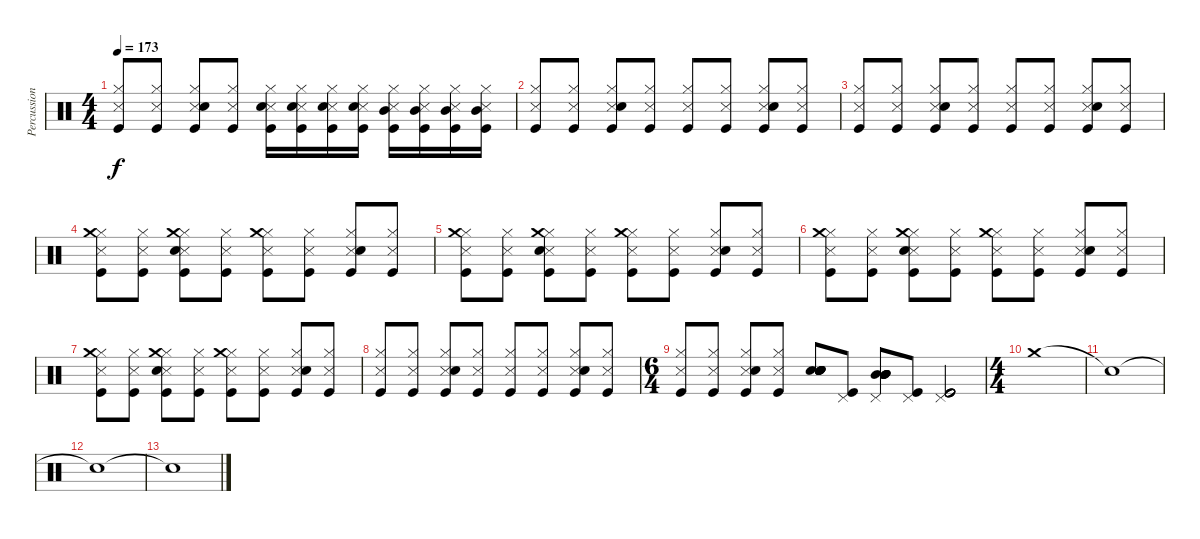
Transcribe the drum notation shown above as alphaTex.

\track ("Percussion" "Percussion") {instrument percussion}
\staff {score}
\articulation defaults
\ts (4 4)
\tempo 173
\clef neutral
\ks c
("Snare (side stick) 3" "Hi-Hat (closed)" "Kick (hit)").8{dy f} ("Snare (side stick) 3" "Hi-Hat (closed)" "Kick (hit)").8 ("Snare (side stick) 3" "Hi-Hat (closed)" "Snare (hit) 2" "Kick (hit)").8 ("Snare (side stick) 3" "Hi-Hat (closed)" "Kick (hit)").8 ("Snare (side stick) 3" "Hi-Hat (closed)" "Snare (hit) 2" "Kick (hit)").16 ("Snare (side stick) 3" "Hi-Hat (closed)" "Snare (hit) 2" "Kick (hit)").16 ("Snare (side stick) 3" "Hi-Hat (closed)" "Snare (hit) 2" "Kick (hit)").16 ("Snare (side stick) 3" "Hi-Hat (closed)" "Snare (hit) 2" "Kick (hit)").16 ("Snare (side stick) 3" "Hi-Hat (closed)" "Mid Tom (hit)" "Kick (hit)").16 ("Snare (side stick) 3" "Hi-Hat (closed)" "Mid Tom (hit)" "Kick (hit)").16 ("Snare (side stick) 3" "Hi-Hat (closed)" "Mid Tom (hit)" "Kick (hit)").16 ("Snare (side stick) 3" "Hi-Hat (closed)" "Mid Tom (hit)" "Kick (hit)").16 |
("Snare (side stick) 3" "Hi-Hat (closed)" "Kick (hit)").8 ("Snare (side stick) 3" "Hi-Hat (closed)" "Kick (hit)").8 ("Snare (side stick) 3" "Hi-Hat (closed)" "Snare (hit) 2" "Kick (hit)").8 ("Snare (side stick) 3" "Hi-Hat (closed)" "Kick (hit)").8 ("Snare (side stick) 3" "Hi-Hat (closed)" "Kick (hit)").8 ("Snare (side stick) 3" "Hi-Hat (closed)" "Kick (hit)").8 ("Snare (side stick) 3" "Hi-Hat (closed)" "Snare (hit) 2" "Kick (hit)").8 ("Snare (side stick) 3" "Hi-Hat (closed)" "Kick (hit)").8 |
("Snare (side stick) 3" "Hi-Hat (closed)" "Kick (hit)").8 ("Snare (side stick) 3" "Hi-Hat (closed)" "Kick (hit)").8 ("Snare (side stick) 3" "Hi-Hat (closed)" "Snare (hit) 2" "Kick (hit)").8 ("Snare (side stick) 3" "Hi-Hat (closed)" "Kick (hit)").8 ("Snare (side stick) 3" "Hi-Hat (closed)" "Kick (hit)").8 ("Snare (side stick) 3" "Hi-Hat (closed)" "Kick (hit)").8 ("Snare (side stick) 3" "Hi-Hat (closed)" "Snare (hit) 2" "Kick (hit)").8 ("Snare (side stick) 3" "Hi-Hat (closed)" "Kick (hit)").8 |
("Snare (side stick) 3" "Hi-Hat (closed)" "Crash medium (hit)" "Kick (hit)").8 ("Snare (side stick) 3" "Hi-Hat (closed)" "Kick (hit)").8 ("Snare (side stick) 3" "Hi-Hat (closed)" "Crash medium (hit)" "Snare (hit) 2" "Kick (hit)").8 ("Snare (side stick) 3" "Hi-Hat (closed)" "Kick (hit)").8 ("Snare (side stick) 3" "Hi-Hat (closed)" "Crash medium (hit)" "Kick (hit)").8 ("Snare (side stick) 3" "Hi-Hat (closed)" "Kick (hit)").8 ("Snare (side stick) 3" "Hi-Hat (closed)" "Snare (hit) 2" "Kick (hit)").8 ("Snare (side stick) 3" "Hi-Hat (closed)" "Kick (hit)").8 |
("Snare (side stick) 3" "Hi-Hat (closed)" "Crash medium (hit)" "Kick (hit)").8 ("Snare (side stick) 3" "Hi-Hat (closed)" "Kick (hit)").8 ("Snare (side stick) 3" "Hi-Hat (closed)" "Crash medium (hit)" "Snare (hit) 2" "Kick (hit)").8 ("Snare (side stick) 3" "Hi-Hat (closed)" "Kick (hit)").8 ("Snare (side stick) 3" "Hi-Hat (closed)" "Crash medium (hit)" "Kick (hit)").8 ("Snare (side stick) 3" "Hi-Hat (closed)" "Kick (hit)").8 ("Snare (side stick) 3" "Hi-Hat (closed)" "Snare (hit) 2" "Kick (hit)").8 ("Snare (side stick) 3" "Hi-Hat (closed)" "Kick (hit)").8 |
("Snare (side stick) 3" "Hi-Hat (closed)" "Crash medium (hit)" "Kick (hit)").8 ("Snare (side stick) 3" "Hi-Hat (closed)" "Kick (hit)").8 ("Snare (side stick) 3" "Hi-Hat (closed)" "Crash medium (hit)" "Snare (hit) 2" "Kick (hit)").8 ("Snare (side stick) 3" "Hi-Hat (closed)" "Kick (hit)").8 ("Snare (side stick) 3" "Hi-Hat (closed)" "Crash medium (hit)" "Kick (hit)").8 ("Snare (side stick) 3" "Hi-Hat (closed)" "Kick (hit)").8 ("Snare (side stick) 3" "Hi-Hat (closed)" "Snare (hit) 2" "Kick (hit)").8 ("Snare (side stick) 3" "Hi-Hat (closed)" "Kick (hit)").8 |
("Snare (side stick) 3" "Hi-Hat (closed)" "Crash medium (hit)" "Kick (hit)").8 ("Snare (side stick) 3" "Hi-Hat (closed)" "Kick (hit)").8 ("Snare (side stick) 3" "Hi-Hat (closed)" "Crash medium (hit)" "Snare (hit) 2" "Kick (hit)").8 ("Snare (side stick) 3" "Hi-Hat (closed)" "Kick (hit)").8 ("Snare (side stick) 3" "Hi-Hat (closed)" "Crash medium (hit)" "Kick (hit)").8 ("Snare (side stick) 3" "Hi-Hat (closed)" "Kick (hit)").8 ("Snare (side stick) 3" "Hi-Hat (closed)" "Snare (hit) 2" "Kick (hit)").8 ("Snare (side stick) 3" "Hi-Hat (closed)" "Kick (hit)").8 |
("Snare (side stick) 3" "Hi-Hat (closed)" "Kick (hit)").8 ("Snare (side stick) 3" "Hi-Hat (closed)" "Kick (hit)").8 ("Snare (side stick) 3" "Hi-Hat (closed)" "Snare (hit) 2" "Kick (hit)").8 ("Snare (side stick) 3" "Hi-Hat (closed)" "Kick (hit)").8 ("Snare (side stick) 3" "Hi-Hat (closed)" "Kick (hit)").8 ("Snare (side stick) 3" "Hi-Hat (closed)" "Kick (hit)").8 ("Snare (side stick) 3" "Hi-Hat (closed)" "Snare (hit) 2" "Kick (hit)").8 ("Snare (side stick) 3" "Hi-Hat (closed)" "Kick (hit)").8 |
\ts (6 4)
("Snare (side stick) 3" "Hi-Hat (closed)" "Kick (hit)").8 ("Snare (side stick) 3" "Hi-Hat (closed)" "Kick (hit)").8 ("Snare (side stick) 3" "Hi-Hat (closed)" "Snare (hit) 2" "Kick (hit)").8 ("Snare (side stick) 3" "Hi-Hat (closed)" "Kick (hit)").8 ("Snare (hit) 2" "Snare (hit) 2" "Snare (hit) 2" "Snare (hit) 2" "Snare (hit) 2" "Snare (hit) 2").8 ("Pedal Hi-Hat (hit)" "Kick (hit)").8 ("Pedal Hi-Hat (hit)" "Mid Tom (hit)" "Mid Tom (hit)" "Mid Tom (hit)" "Mid Tom (hit)" "Mid Tom (hit)").8 ("Pedal Hi-Hat (hit)" "Kick (hit)").8 ("Pedal Hi-Hat (hit)" "Kick (hit)" "Kick (hit)" "Kick (hit)" "Kick (hit)" "Kick (hit)").2 |
\ts (4 4)
"Crash medium (hit)".1 |
"Snare (hit)"{t}.1 |
"Snare (hit)"{t}.1 |
"Snare (hit)"{t}.1
